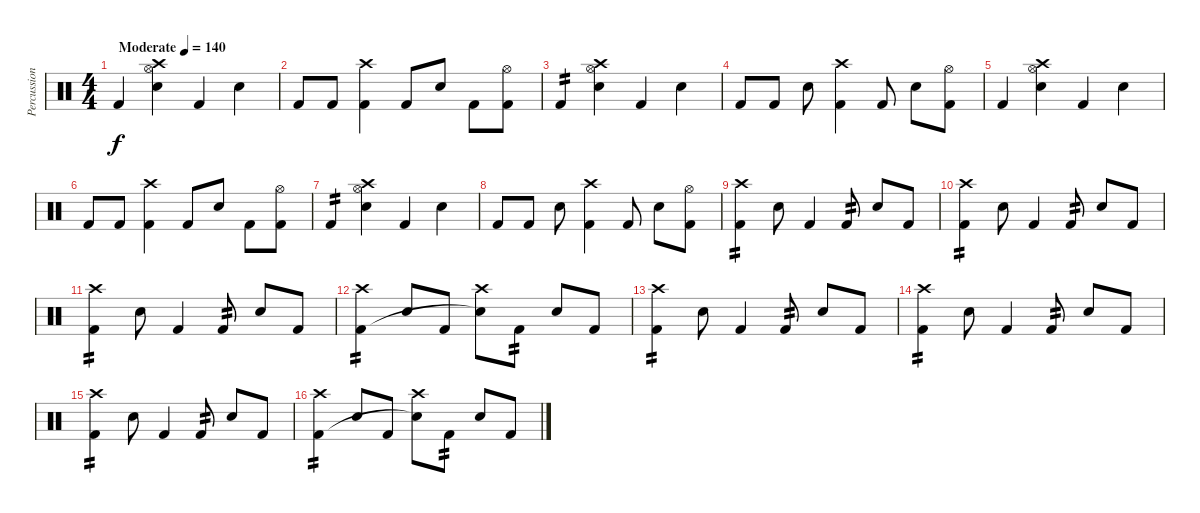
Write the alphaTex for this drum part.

\track ("Percussion" "Percussion") {instrument percussion}
\staff {score}
\articulation defaults
\ts (4 4)
\tempo (140 "Moderate")
\clef neutral
\ks c "Kick (hit) 2".4{dy f}
("Crash high (hit)" "Electric Snare (hit)" "Hi-Hat (open)").4 "Kick (hit) 2".4 "Electric Snare (hit)".4 |
"Kick (hit) 2".8 "Kick (hit) 2".8 ("Crash high (hit)" "Kick (hit) 2").4 "Kick (hit) 2".8 "Electric Snare (hit)".8 "Kick (hit) 2".8 ("Hi-Hat (open)" "Kick (hit) 2").8 |
"Kick (hit) 2".4{tp 2} ("Crash high (hit)" "Electric Snare (hit)" "Hi-Hat (open)").4 "Kick (hit) 2".4 "Electric Snare (hit)".4 |
"Kick (hit) 2".8 "Kick (hit) 2".8 "Electric Snare (hit)".8 ("Crash high (hit)" "Kick (hit) 2").4 "Kick (hit) 2".8 "Electric Snare (hit)".8 ("Hi-Hat (open)" "Kick (hit) 2").8 |
"Kick (hit) 2".4 ("Crash high (hit)" "Electric Snare (hit)" "Hi-Hat (open)").4 "Kick (hit) 2".4 "Electric Snare (hit)".4 |
"Kick (hit) 2".8 "Kick (hit) 2".8 ("Crash high (hit)" "Kick (hit) 2").4 "Kick (hit) 2".8 "Electric Snare (hit)".8 "Kick (hit) 2".8 ("Hi-Hat (open)" "Kick (hit) 2").8 |
"Kick (hit) 2".4{tp 2} ("Crash high (hit)" "Electric Snare (hit)" "Hi-Hat (open)").4 "Kick (hit) 2".4 "Electric Snare (hit)".4 |
"Kick (hit) 2".8 "Kick (hit) 2".8 "Electric Snare (hit)".8 ("Crash high (hit)" "Kick (hit) 2").4 "Kick (hit) 2".8 "Electric Snare (hit)".8 ("Hi-Hat (open)" "Kick (hit) 2").8 |
("Crash high (hit)" "Kick (hit) 2").4{tp 2} "Electric Snare (hit)".8 "Kick (hit) 2".4 "Kick (hit) 2".8{tp 2} "Electric Snare (hit)".8 "Kick (hit) 2".8 |
("Crash high (hit)" "Kick (hit) 2").4{tp 2} "Electric Snare (hit)".8 "Kick (hit) 2".4 "Kick (hit) 2".8{tp 2} "Electric Snare (hit)".8 "Kick (hit) 2".8 |
("Crash high (hit)" "Kick (hit) 2").4{tp 2} "Electric Snare (hit)".8 "Kick (hit) 2".4 "Kick (hit) 2".8{tp 2} "Electric Snare (hit)".8 "Kick (hit) 2".8 |
("Crash high (hit)" "Kick (hit) 2").4{tp 2} "Electric Snare (hit)".8 "Kick (hit) 2".8 ("Crash high (hit)" "Snare (hit)"{t}).8 "Kick (hit) 2".8{tp 2} "Electric Snare (hit)".8 "Kick (hit) 2".8 |
("Crash high (hit)" "Kick (hit) 2").4{tp 2} "Electric Snare (hit)".8 "Kick (hit) 2".4 "Kick (hit) 2".8{tp 2} "Electric Snare (hit)".8 "Kick (hit) 2".8 |
("Crash high (hit)" "Kick (hit) 2").4{tp 2} "Electric Snare (hit)".8 "Kick (hit) 2".4 "Kick (hit) 2".8{tp 2} "Electric Snare (hit)".8 "Kick (hit) 2".8 |
("Crash high (hit)" "Kick (hit) 2").4{tp 2} "Electric Snare (hit)".8 "Kick (hit) 2".4 "Kick (hit) 2".8{tp 2} "Electric Snare (hit)".8 "Kick (hit) 2".8 |
("Crash high (hit)" "Kick (hit) 2").4{tp 2} "Electric Snare (hit)".8 "Kick (hit) 2".8 ("Crash high (hit)" "Snare (hit)"{t}).8 "Kick (hit) 2".8{tp 2} "Electric Snare (hit)".8 "Kick (hit) 2".8
